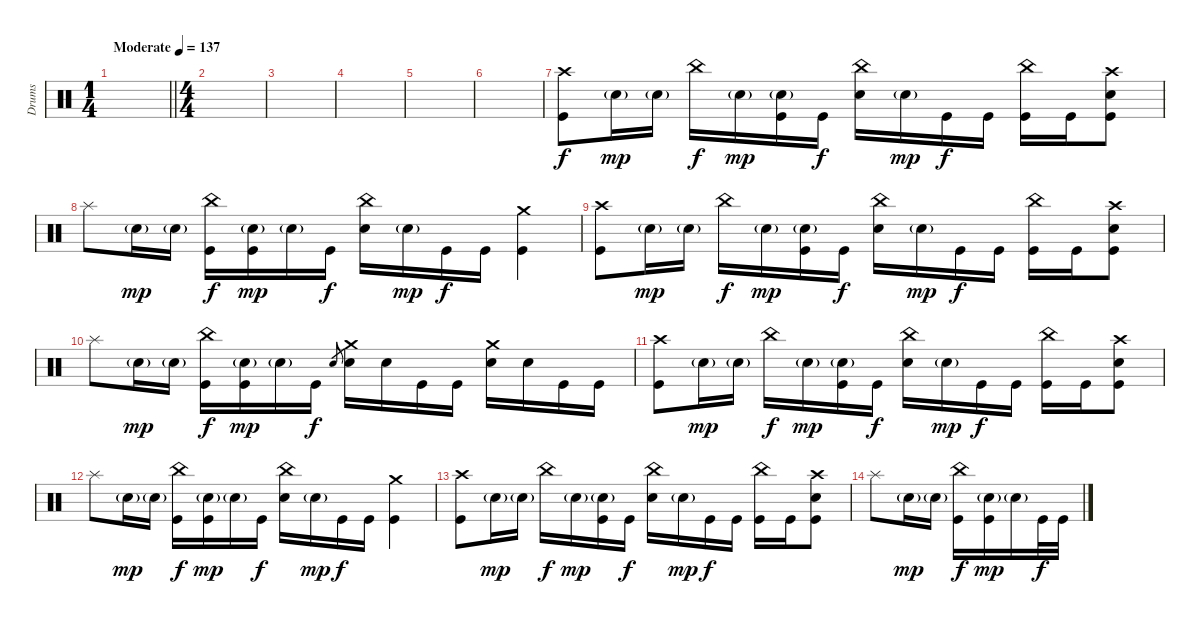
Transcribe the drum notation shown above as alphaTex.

\track ("Drums" "Drums") {instrument percussion}
\staff
\articulation defaults
\ts (1 4)
\tempo (137 "Moderate")
\clef neutral
\barLineRight lightlight
\ks c
|
\ts (4 4)
|
|
|
|
|
("Crash high (hit)" "Kick (hit)").8 "Electric Snare (hit)"{g}.16{dy mp} "Electric Snare (hit)"{g}.16 "China (hit)".16{dy f} "Electric Snare (hit)"{g}.16{dy mp} ("Electric Snare (hit)"{g} "Kick (hit)").16 "Kick (hit)".16{dy f} ("China (hit)" "Electric Snare (hit)").16 "Electric Snare (hit)"{g}.16{dy mp} "Kick (hit)".16{dy f} "Kick (hit)".16 ("China (hit)" "Kick (hit)").16 "Kick (hit)".16 ("Crash high (hit)" "Electric Snare (hit)" "Kick (hit)").8 |
"Splash (hit)".8 "Electric Snare (hit)"{g}.16{dy mp} "Electric Snare (hit)"{g}.16 ("China (hit)" "Kick (hit)").16{dy f} ("Electric Snare (hit)"{g} "Kick (hit)").16{dy mp} "Electric Snare (hit)"{g}.16 "Kick (hit)".16{dy f} ("China (hit)" "Electric Snare (hit)").16 "Electric Snare (hit)"{g}.16{dy mp} "Kick (hit)".16{dy f} "Kick (hit)".16 ("Crash medium (hit)" "Kick (hit)").4 |
("Crash high (hit)" "Kick (hit)").8 "Electric Snare (hit)"{g}.16{dy mp} "Electric Snare (hit)"{g}.16 "China (hit)".16{dy f} "Electric Snare (hit)"{g}.16{dy mp} ("Electric Snare (hit)"{g} "Kick (hit)").16 "Kick (hit)".16{dy f} ("China (hit)" "Electric Snare (hit)").16 "Electric Snare (hit)"{g}.16{dy mp} "Kick (hit)".16{dy f} "Kick (hit)".16 ("China (hit)" "Kick (hit)").16 "Kick (hit)".16 ("Crash high (hit)" "Electric Snare (hit)" "Kick (hit)").8 |
"Splash (hit)".8 "Electric Snare (hit)"{g}.16{dy mp} "Electric Snare (hit)"{g}.16 ("China (hit)" "Kick (hit)").16{dy f} ("Electric Snare (hit)"{g} "Kick (hit)").16{dy mp} "Electric Snare (hit)"{g}.16 "Kick (hit)".16{dy f} "Electric Snare (hit)"{x}.8{gr} ("Crash medium (hit)" "Electric Snare (hit)").16 "Electric Snare (hit)".16 "Kick (hit)".16 "Kick (hit)".16 ("Crash medium (hit)" "Electric Snare (hit)").16 "Electric Snare (hit)".16 "Kick (hit)".16 "Kick (hit)".16 |
("Crash high (hit)" "Kick (hit)").8 "Electric Snare (hit)"{g}.16{dy mp} "Electric Snare (hit)"{g}.16 "China (hit)".16{dy f} "Electric Snare (hit)"{g}.16{dy mp} ("Electric Snare (hit)"{g} "Kick (hit)").16 "Kick (hit)".16{dy f} ("China (hit)" "Electric Snare (hit)").16 "Electric Snare (hit)"{g}.16{dy mp} "Kick (hit)".16{dy f} "Kick (hit)".16 ("China (hit)" "Kick (hit)").16 "Kick (hit)".16 ("Crash high (hit)" "Electric Snare (hit)" "Kick (hit)").8 |
"Splash (hit)".8 "Electric Snare (hit)"{g}.16{dy mp} "Electric Snare (hit)"{g}.16 ("China (hit)" "Kick (hit)").16{dy f} ("Electric Snare (hit)"{g} "Kick (hit)").16{dy mp} "Electric Snare (hit)"{g}.16 "Kick (hit)".16{dy f} ("China (hit)" "Electric Snare (hit)").16 "Electric Snare (hit)"{g}.16{dy mp} "Kick (hit)".16{dy f} "Kick (hit)".16 ("Crash medium (hit)" "Kick (hit)").4 |
("Crash high (hit)" "Kick (hit)").8 "Electric Snare (hit)"{g}.16{dy mp} "Electric Snare (hit)"{g}.16 "China (hit)".16{dy f} "Electric Snare (hit)"{g}.16{dy mp} ("Electric Snare (hit)"{g} "Kick (hit)").16 "Kick (hit)".16{dy f} ("China (hit)" "Electric Snare (hit)").16 "Electric Snare (hit)"{g}.16{dy mp} "Kick (hit)".16{dy f} "Kick (hit)".16 ("China (hit)" "Kick (hit)").16 "Kick (hit)".16 ("Crash high (hit)" "Electric Snare (hit)" "Kick (hit)").8 |
"Splash (hit)".8 "Electric Snare (hit)"{g}.16{dy mp} "Electric Snare (hit)"{g}.16 ("China (hit)" "Kick (hit)").16{dy f} ("Electric Snare (hit)"{g} "Kick (hit)").16{dy mp} "Electric Snare (hit)"{g}.16 "Kick (hit)".32{dy f} "Kick (hit)".32
